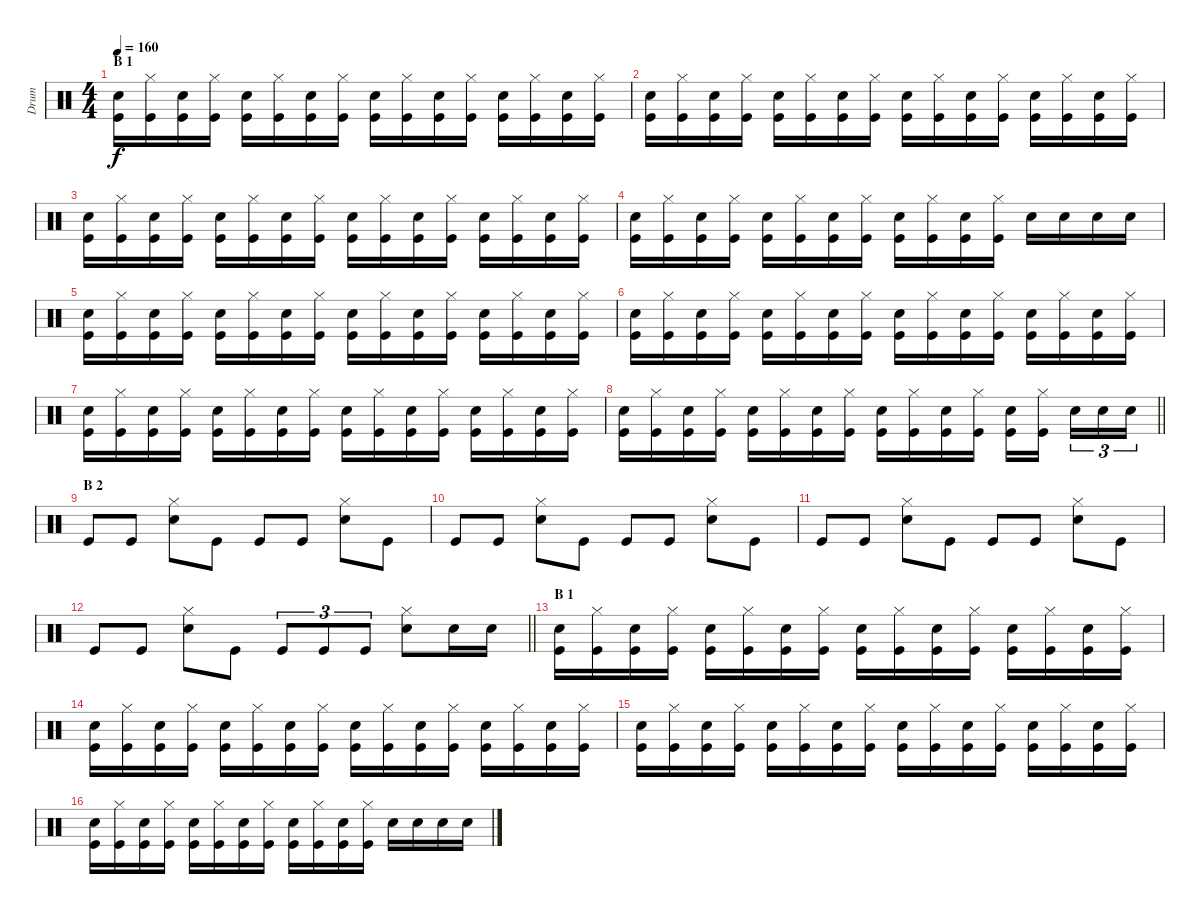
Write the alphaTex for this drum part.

\track ("Drum" "Drum") {instrument percussion}
\staff
\articulation defaults
\ts (4 4)
\section ("" "B 1")
\tempo 160
\clef neutral
\ks c
("Snare (hit) 2" "Kick (hit)").16{dy f} ("Hi-Hat (closed)" "Kick (hit)").16 ("Snare (hit) 2" "Kick (hit)").16 ("Hi-Hat (closed)" "Kick (hit)").16 ("Snare (hit) 2" "Kick (hit)").16 ("Hi-Hat (closed)" "Kick (hit)").16 ("Snare (hit) 2" "Kick (hit)").16 ("Hi-Hat (closed)" "Kick (hit)").16 ("Snare (hit) 2" "Kick (hit)").16 ("Hi-Hat (closed)" "Kick (hit)").16 ("Snare (hit) 2" "Kick (hit)").16 ("Hi-Hat (closed)" "Kick (hit)").16 ("Snare (hit) 2" "Kick (hit)").16 ("Hi-Hat (closed)" "Kick (hit)").16 ("Snare (hit) 2" "Kick (hit)").16 ("Hi-Hat (closed)" "Kick (hit)").16 |
("Snare (hit) 2" "Kick (hit)").16 ("Hi-Hat (closed)" "Kick (hit)").16 ("Snare (hit) 2" "Kick (hit)").16 ("Hi-Hat (closed)" "Kick (hit)").16 ("Snare (hit) 2" "Kick (hit)").16 ("Hi-Hat (closed)" "Kick (hit)").16 ("Snare (hit) 2" "Kick (hit)").16 ("Hi-Hat (closed)" "Kick (hit)").16 ("Snare (hit) 2" "Kick (hit)").16 ("Hi-Hat (closed)" "Kick (hit)").16 ("Snare (hit) 2" "Kick (hit)").16 ("Hi-Hat (closed)" "Kick (hit)").16 ("Snare (hit) 2" "Kick (hit)").16 ("Hi-Hat (closed)" "Kick (hit)").16 ("Snare (hit) 2" "Kick (hit)").16 ("Hi-Hat (closed)" "Kick (hit)").16 |
("Snare (hit) 2" "Kick (hit)").16 ("Hi-Hat (closed)" "Kick (hit)").16 ("Snare (hit) 2" "Kick (hit)").16 ("Hi-Hat (closed)" "Kick (hit)").16 ("Snare (hit) 2" "Kick (hit)").16 ("Hi-Hat (closed)" "Kick (hit)").16 ("Snare (hit) 2" "Kick (hit)").16 ("Hi-Hat (closed)" "Kick (hit)").16 ("Snare (hit) 2" "Kick (hit)").16 ("Hi-Hat (closed)" "Kick (hit)").16 ("Snare (hit) 2" "Kick (hit)").16 ("Hi-Hat (closed)" "Kick (hit)").16 ("Snare (hit) 2" "Kick (hit)").16 ("Hi-Hat (closed)" "Kick (hit)").16 ("Snare (hit) 2" "Kick (hit)").16 ("Hi-Hat (closed)" "Kick (hit)").16 |
("Snare (hit) 2" "Kick (hit)").16 ("Hi-Hat (closed)" "Kick (hit)").16 ("Snare (hit) 2" "Kick (hit)").16 ("Hi-Hat (closed)" "Kick (hit)").16 ("Snare (hit) 2" "Kick (hit)").16 ("Hi-Hat (closed)" "Kick (hit)").16 ("Snare (hit) 2" "Kick (hit)").16 ("Hi-Hat (closed)" "Kick (hit)").16 ("Snare (hit) 2" "Kick (hit)").16 ("Hi-Hat (closed)" "Kick (hit)").16 ("Snare (hit) 2" "Kick (hit)").16 ("Hi-Hat (closed)" "Kick (hit)").16 "Snare (hit) 2".16 "Snare (hit) 2".16 "Snare (hit) 2".16 "Snare (hit) 2".16 |
("Snare (hit) 2" "Kick (hit)").16 ("Hi-Hat (closed)" "Kick (hit)").16 ("Snare (hit) 2" "Kick (hit)").16 ("Hi-Hat (closed)" "Kick (hit)").16 ("Snare (hit) 2" "Kick (hit)").16 ("Hi-Hat (closed)" "Kick (hit)").16 ("Snare (hit) 2" "Kick (hit)").16 ("Hi-Hat (closed)" "Kick (hit)").16 ("Snare (hit) 2" "Kick (hit)").16 ("Hi-Hat (closed)" "Kick (hit)").16 ("Snare (hit) 2" "Kick (hit)").16 ("Hi-Hat (closed)" "Kick (hit)").16 ("Snare (hit) 2" "Kick (hit)").16 ("Hi-Hat (closed)" "Kick (hit)").16 ("Snare (hit) 2" "Kick (hit)").16 ("Hi-Hat (closed)" "Kick (hit)").16 |
("Snare (hit) 2" "Kick (hit)").16 ("Hi-Hat (closed)" "Kick (hit)").16 ("Snare (hit) 2" "Kick (hit)").16 ("Hi-Hat (closed)" "Kick (hit)").16 ("Snare (hit) 2" "Kick (hit)").16 ("Hi-Hat (closed)" "Kick (hit)").16 ("Snare (hit) 2" "Kick (hit)").16 ("Hi-Hat (closed)" "Kick (hit)").16 ("Snare (hit) 2" "Kick (hit)").16 ("Hi-Hat (closed)" "Kick (hit)").16 ("Snare (hit) 2" "Kick (hit)").16 ("Hi-Hat (closed)" "Kick (hit)").16 ("Snare (hit) 2" "Kick (hit)").16 ("Hi-Hat (closed)" "Kick (hit)").16 ("Snare (hit) 2" "Kick (hit)").16 ("Hi-Hat (closed)" "Kick (hit)").16 |
("Snare (hit) 2" "Kick (hit)").16 ("Hi-Hat (closed)" "Kick (hit)").16 ("Snare (hit) 2" "Kick (hit)").16 ("Hi-Hat (closed)" "Kick (hit)").16 ("Snare (hit) 2" "Kick (hit)").16 ("Hi-Hat (closed)" "Kick (hit)").16 ("Snare (hit) 2" "Kick (hit)").16 ("Hi-Hat (closed)" "Kick (hit)").16 ("Snare (hit) 2" "Kick (hit)").16 ("Hi-Hat (closed)" "Kick (hit)").16 ("Snare (hit) 2" "Kick (hit)").16 ("Hi-Hat (closed)" "Kick (hit)").16 ("Snare (hit) 2" "Kick (hit)").16 ("Hi-Hat (closed)" "Kick (hit)").16 ("Snare (hit) 2" "Kick (hit)").16 ("Hi-Hat (closed)" "Kick (hit)").16 |
\barLineRight lightlight
("Snare (hit) 2" "Kick (hit)").16 ("Hi-Hat (closed)" "Kick (hit)").16 ("Snare (hit) 2" "Kick (hit)").16 ("Hi-Hat (closed)" "Kick (hit)").16 ("Snare (hit) 2" "Kick (hit)").16 ("Hi-Hat (closed)" "Kick (hit)").16 ("Snare (hit) 2" "Kick (hit)").16 ("Hi-Hat (closed)" "Kick (hit)").16 ("Snare (hit) 2" "Kick (hit)").16 ("Hi-Hat (closed)" "Kick (hit)").16 ("Snare (hit) 2" "Kick (hit)").16 ("Hi-Hat (closed)" "Kick (hit)").16 ("Snare (hit) 2" "Kick (hit)").16 ("Hi-Hat (closed)" "Kick (hit)").16{beam splitsecondary} "Snare (hit) 2".16{tu (3 2)} "Snare (hit) 2".16{tu (3 2)} "Snare (hit) 2".16{tu (3 2)} |
\section ("" "B 2")
"Kick (hit)".8 "Kick (hit)".8 ("Hi-Hat (closed)" "Snare (hit) 2").8 "Kick (hit)".8 "Kick (hit)".8 "Kick (hit)".8 ("Hi-Hat (closed)" "Snare (hit) 2").8 "Kick (hit)".8 |
"Kick (hit)".8 "Kick (hit)".8 ("Hi-Hat (closed)" "Snare (hit) 2").8 "Kick (hit)".8 "Kick (hit)".8 "Kick (hit)".8 ("Hi-Hat (closed)" "Snare (hit) 2").8 "Kick (hit)".8 |
"Kick (hit)".8 "Kick (hit)".8 ("Hi-Hat (closed)" "Snare (hit) 2").8 "Kick (hit)".8 "Kick (hit)".8 "Kick (hit)".8 ("Hi-Hat (closed)" "Snare (hit) 2").8 "Kick (hit)".8 |
\barLineRight lightlight "Kick (hit)".8 "Kick (hit)".8
("Hi-Hat (closed)" "Snare (hit) 2").8 "Kick (hit)".8 "Kick (hit)".8{tu (3 2)} "Kick (hit)".8{tu (3 2)} "Kick (hit)".8{tu (3 2)} ("Hi-Hat (closed)" "Snare (hit) 2").8 "Snare (hit) 2".16 "Snare (hit) 2".16 |
\section ("" "B 1")
("Snare (hit) 2" "Kick (hit)").16 ("Hi-Hat (closed)" "Kick (hit)").16 ("Snare (hit) 2" "Kick (hit)").16 ("Hi-Hat (closed)" "Kick (hit)").16 ("Snare (hit) 2" "Kick (hit)").16 ("Hi-Hat (closed)" "Kick (hit)").16 ("Snare (hit) 2" "Kick (hit)").16 ("Hi-Hat (closed)" "Kick (hit)").16 ("Snare (hit) 2" "Kick (hit)").16 ("Hi-Hat (closed)" "Kick (hit)").16 ("Snare (hit) 2" "Kick (hit)").16 ("Hi-Hat (closed)" "Kick (hit)").16 ("Snare (hit) 2" "Kick (hit)").16 ("Hi-Hat (closed)" "Kick (hit)").16 ("Snare (hit) 2" "Kick (hit)").16 ("Hi-Hat (closed)" "Kick (hit)").16 |
("Snare (hit) 2" "Kick (hit)").16 ("Hi-Hat (closed)" "Kick (hit)").16 ("Snare (hit) 2" "Kick (hit)").16 ("Hi-Hat (closed)" "Kick (hit)").16 ("Snare (hit) 2" "Kick (hit)").16 ("Hi-Hat (closed)" "Kick (hit)").16 ("Snare (hit) 2" "Kick (hit)").16 ("Hi-Hat (closed)" "Kick (hit)").16 ("Snare (hit) 2" "Kick (hit)").16 ("Hi-Hat (closed)" "Kick (hit)").16 ("Snare (hit) 2" "Kick (hit)").16 ("Hi-Hat (closed)" "Kick (hit)").16 ("Snare (hit) 2" "Kick (hit)").16 ("Hi-Hat (closed)" "Kick (hit)").16 ("Snare (hit) 2" "Kick (hit)").16 ("Hi-Hat (closed)" "Kick (hit)").16 |
("Snare (hit) 2" "Kick (hit)").16 ("Hi-Hat (closed)" "Kick (hit)").16 ("Snare (hit) 2" "Kick (hit)").16 ("Hi-Hat (closed)" "Kick (hit)").16 ("Snare (hit) 2" "Kick (hit)").16 ("Hi-Hat (closed)" "Kick (hit)").16 ("Snare (hit) 2" "Kick (hit)").16 ("Hi-Hat (closed)" "Kick (hit)").16 ("Snare (hit) 2" "Kick (hit)").16 ("Hi-Hat (closed)" "Kick (hit)").16 ("Snare (hit) 2" "Kick (hit)").16 ("Hi-Hat (closed)" "Kick (hit)").16 ("Snare (hit) 2" "Kick (hit)").16 ("Hi-Hat (closed)" "Kick (hit)").16 ("Snare (hit) 2" "Kick (hit)").16 ("Hi-Hat (closed)" "Kick (hit)").16 |
("Snare (hit) 2" "Kick (hit)").16 ("Hi-Hat (closed)" "Kick (hit)").16 ("Snare (hit) 2" "Kick (hit)").16 ("Hi-Hat (closed)" "Kick (hit)").16 ("Snare (hit) 2" "Kick (hit)").16 ("Hi-Hat (closed)" "Kick (hit)").16 ("Snare (hit) 2" "Kick (hit)").16 ("Hi-Hat (closed)" "Kick (hit)").16 ("Snare (hit) 2" "Kick (hit)").16 ("Hi-Hat (closed)" "Kick (hit)").16 ("Snare (hit) 2" "Kick (hit)").16 ("Hi-Hat (closed)" "Kick (hit)").16 "Snare (hit) 2".16 "Snare (hit) 2".16 "Snare (hit) 2".16 "Snare (hit) 2".16
